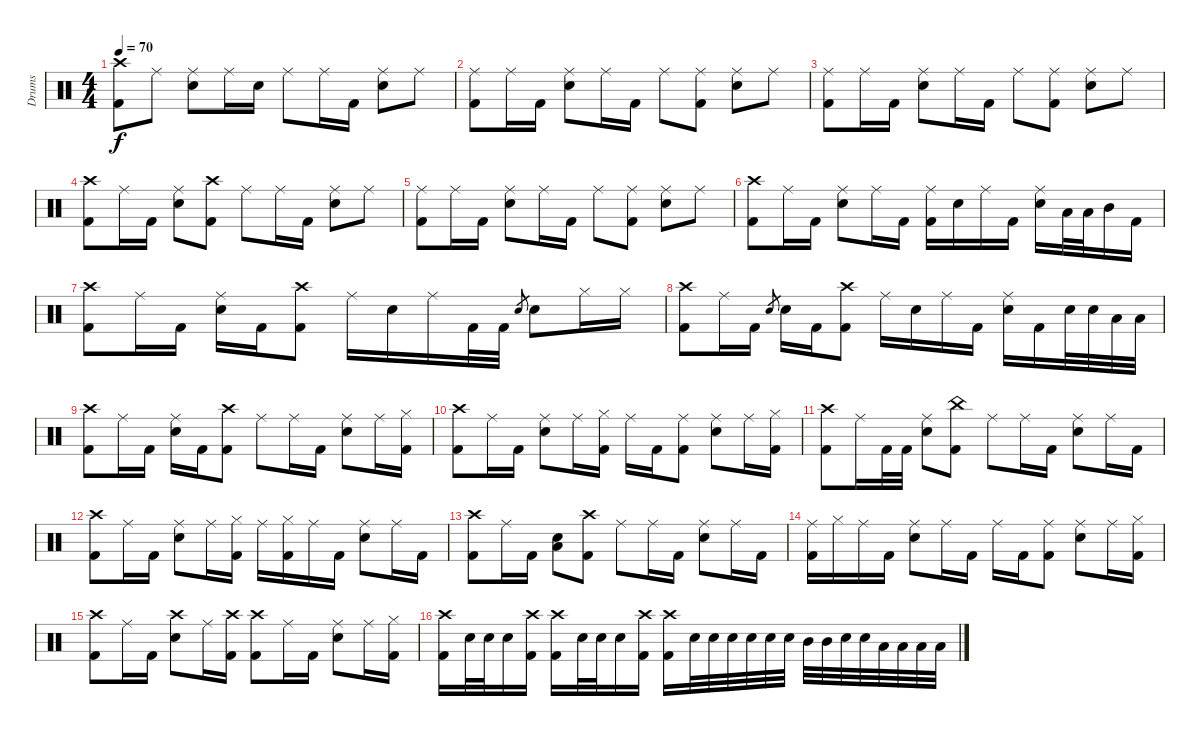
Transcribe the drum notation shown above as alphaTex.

\track ("Drums" "Drums") {instrument percussion}
\staff {score}
\articulation defaults
\ts (4 4)
\tempo 70
\clef neutral
\ks c
("Crash high (hit)" "Kick (hit) 2").8{dy f} "Ride (middle)".8 ("Ride (middle)" "Electric Snare (hit)").8 "Ride (middle)".16 "Electric Snare (hit)".16 "Ride (middle)".8 "Ride (middle)".16 "Kick (hit) 2".16 ("Ride (middle)" "Electric Snare (hit)").8 "Ride (middle)".8 |
("Ride (middle)" "Kick (hit) 2").8 "Ride (middle)".16 "Kick (hit) 2".16 ("Ride (middle)" "Electric Snare (hit)").8 "Ride (middle)".16 "Kick (hit) 2".16 "Ride (middle)".8 ("Ride (middle)" "Kick (hit) 2").8 ("Ride (middle)" "Electric Snare (hit)").8 "Ride (middle)".8 |
("Ride (middle)" "Kick (hit) 2").8 "Ride (middle)".16 "Kick (hit) 2".16 ("Ride (middle)" "Electric Snare (hit)").8 "Ride (middle)".16 "Kick (hit) 2".16 "Ride (middle)".8 ("Ride (middle)" "Kick (hit) 2").8 ("Ride (middle)" "Electric Snare (hit)").8 "Ride (middle)".8 |
("Crash high (hit)" "Kick (hit) 2").8 "Ride (middle)".16 "Kick (hit) 2".16 ("Ride (middle)" "Electric Snare (hit)").8 ("Crash high (hit)" "Kick (hit) 2").8 "Ride (middle)".8 "Ride (middle)".16 "Kick (hit) 2".16 ("Ride (middle)" "Electric Snare (hit)").8 "Ride (middle)".8 |
("Ride (middle)" "Kick (hit) 2").8 "Ride (middle)".16 "Kick (hit) 2".16 ("Ride (middle)" "Electric Snare (hit)").8 "Ride (middle)".16 "Kick (hit) 2".16 "Ride (middle)".8 ("Ride (middle)" "Kick (hit) 2").8 ("Ride (middle)" "Electric Snare (hit)").8 "Ride (middle)".8 |
("Crash high (hit)" "Kick (hit) 2").8 "Ride (middle)".16 "Kick (hit) 2".16 ("Ride (middle)" "Electric Snare (hit)").8 "Ride (middle)".16 "Kick (hit) 2".16 ("Ride (middle)" "Kick (hit) 2").16 "Electric Snare (hit)".16 "Ride (middle)".16 "Kick (hit) 2".16 ("Ride (middle)" "Electric Snare (hit)").16 "Low Tom (hit)".32 "Low Tom (hit)".32 "Mid Tom (hit)".16 "Kick (hit) 2".16 |
("Crash high (hit)" "Kick (hit) 2").8 "Ride (middle)".16 "Kick (hit) 2".16 ("Ride (middle)" "Electric Snare (hit)").16 "Kick (hit) 2".16 ("Crash high (hit)" "Kick (hit) 2").8 "Ride (middle)".16 "Electric Snare (hit)".16 "Ride (middle)".16 "Kick (hit) 2".32 "Kick (hit) 2".32 "Electric Snare (hit)".8{gr} "Electric Snare (hit)".8 "Hi-Hat (closed)".16 "Hi-Hat (closed)".16 |
("Crash high (hit)" "Kick (hit) 2").8 "Ride (middle)".16 "Kick (hit) 2".16 "Electric Snare (hit)".8{gr} "Electric Snare (hit)".16 "Kick (hit) 2".16 ("Crash high (hit)" "Kick (hit) 2").8 "Ride (middle)".16 "Electric Snare (hit)".16 "Ride (middle)".16 "Kick (hit) 2".16 ("Ride (middle)" "Electric Snare (hit)").16 "Kick (hit) 2".16 "Electric Snare (hit)".32 "Electric Snare (hit)".32 "Low Tom (hit)".32 "Low Tom (hit)".32 |
("Crash high (hit)" "Kick (hit) 2").8 "Ride (middle)".16 "Kick (hit) 2".16 ("Ride (middle)" "Electric Snare (hit)").16 "Kick (hit) 2".16 ("Crash high (hit)" "Kick (hit) 2").8 "Ride (middle)".8 "Ride (middle)".16 "Kick (hit) 2".16 ("Ride (middle)" "Electric Snare (hit)").8 "Ride (middle)".16 ("Hi-Hat (closed)" "Kick (hit) 2").16 |
("Crash high (hit)" "Kick (hit) 2").8 "Ride (middle)".16 "Kick (hit) 2".16 ("Ride (middle)" "Electric Snare (hit)").8 "Ride (middle)".16 ("Hi-Hat (closed)" "Kick (hit) 2").16 "Ride (middle)".16 "Kick (hit) 2".16 ("Ride (middle)" "Kick (hit) 2").8 ("Ride (middle)" "Electric Snare (hit)").8 "Ride (middle)".16 ("Hi-Hat (closed)" "Kick (hit) 2").16 |
("Crash high (hit)" "Kick (hit) 2").8 "Ride (middle)".16 "Kick (hit) 2".32 "Kick (hit) 2".32 ("Ride (middle)" "Electric Snare (hit)").8 ("China (hit)" "Kick (hit) 2").8 "Ride (middle)".8 "Ride (middle)".16 "Kick (hit) 2".16 ("Ride (middle)" "Electric Snare (hit)").8 "Ride (middle)".16 "Kick (hit) 2".16 |
("Crash high (hit)" "Kick (hit) 2").8 "Ride (middle)".16 "Kick (hit) 2".16 ("Ride (middle)" "Electric Snare (hit)").8 "Ride (middle)".16 ("Hi-Hat (closed)" "Kick (hit) 2").16 "Ride (middle)".16 ("Hi-Hat (closed)" "Kick (hit) 2").16 "Ride (middle)".16 "Kick (hit) 2".16 ("Ride (middle)" "Electric Snare (hit)").8 "Ride (middle)".16 "Kick (hit) 2".16 |
("Crash high (hit)" "Kick (hit) 2").8 "Ride (middle)".16 "Kick (hit) 2".16 ("Electric Snare (hit)" "Low Floor Tom (hit)").8 ("Crash high (hit)" "Kick (hit) 2").8 "Ride (middle)".8 "Ride (middle)".16 "Kick (hit) 2".16 ("Ride (middle)" "Electric Snare (hit)").8 "Ride (middle)".16 "Kick (hit) 2".16 |
("Ride (middle)" "Kick (hit) 2").16 "Hi-Hat (closed)".16 "Ride (middle)".16 "Kick (hit) 2".16 ("Ride (middle)" "Electric Snare (hit)").8 "Ride (middle)".16 "Kick (hit) 2".16 "Ride (middle)".16 "Kick (hit) 2".16 ("Ride (middle)" "Kick (hit) 2").8 ("Ride (middle)" "Electric Snare (hit)").8 "Ride (middle)".16 ("Hi-Hat (closed)" "Kick (hit) 2").16 |
("Crash high (hit)" "Kick (hit) 2").8 "Ride (middle)".16 "Kick (hit) 2".16 ("Crash high (hit)" "Electric Snare (hit)").8 "Ride (middle)".16 ("Crash high (hit)" "Kick (hit) 2").16 ("Crash high (hit)" "Kick (hit) 2").8 "Ride (middle)".16 "Kick (hit) 2".16 ("Ride (middle)" "Electric Snare (hit)").8 "Ride (middle)".16 ("Hi-Hat (closed)" "Kick (hit) 2").16 |
("Crash high (hit)" "Kick (hit) 2").16 "Electric Snare (hit)".32 "Electric Snare (hit)".32 "Electric Snare (hit)".16 ("Crash high (hit)" "Kick (hit) 2").16 ("Crash high (hit)" "Kick (hit) 2").16 "Electric Snare (hit)".32 "Electric Snare (hit)".32 "Electric Snare (hit)".16 ("Crash high (hit)" "Kick (hit) 2").16 ("Crash high (hit)" "Kick (hit) 2").16 "Electric Snare (hit)".32 "Electric Snare (hit)".32 "Electric Snare (hit)".32 "Electric Snare (hit)".32 "Electric Snare (hit)".32 "Electric Snare (hit)".32 "Mid Tom (hit)".32 "Mid Tom (hit)".32 "Electric Snare (hit)".32 "Electric Snare (hit)".32 "Low Tom (hit)".32 "Low Tom (hit)".32 "Low Floor Tom (hit)".32 "Low Floor Tom (hit)".32
